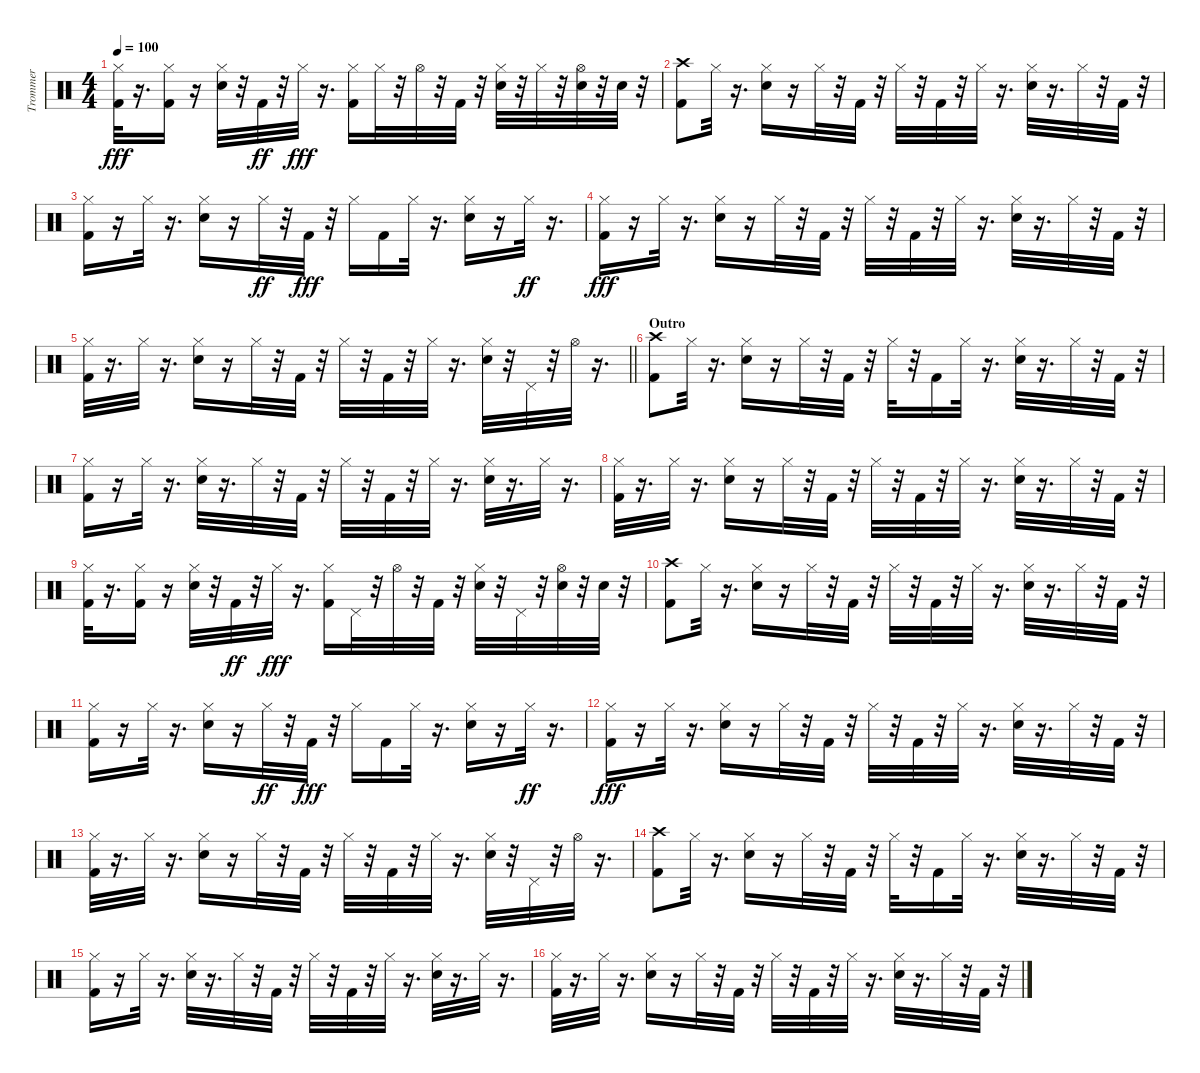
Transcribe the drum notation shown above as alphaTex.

\track ("Trommer" "Trommer") {instrument percussion}
\staff {score}
\articulation defaults
\ts (4 4)
\tempo 100
\clef neutral
\ks c
("Kick (hit) 2" "Hi-Hat (closed)").32{dy fff} r.16{d} ("Kick (hit) 2" "Hi-Hat (closed)").16 r.16 ("Snare (hit) 2" "Hi-Hat (closed)").32 r.32 "Kick (hit) 2".32{dy ff} r.32 "Hi-Hat (closed)".32{dy fff} r.16{d} ("Kick (hit) 2" "Hi-Hat (closed)").16 "Hi-Hat (closed)".32 r.32 "Hi-Hat (open)".32 r.32 "Kick (hit) 2".32 r.32 ("Snare (hit) 2" "Hi-Hat (closed)").32 r.32 "Hi-Hat (closed)".32 r.32 ("Snare (hit) 2" "Hi-Hat (open)").32 r.32 "Snare (hit) 2".32 r.32 |
("Kick (hit) 2" "Crash high (hit)").8 "Hi-Hat (closed)".32 r.16{d} ("Snare (hit) 2" "Hi-Hat (closed)").16 r.16 "Hi-Hat (closed)".32 r.32 "Kick (hit) 2".32 r.32 "Hi-Hat (closed)".32 r.32 "Kick (hit) 2".32 r.32 "Hi-Hat (closed)".32 r.16{d} ("Snare (hit) 2" "Hi-Hat (closed)").32 r.16{d} "Hi-Hat (closed)".32 r.32 "Kick (hit) 2".32 r.32 |
("Kick (hit) 2" "Hi-Hat (closed)").16 r.16 "Hi-Hat (closed)".32 r.16{d} ("Snare (hit) 2" "Hi-Hat (closed)").16 r.16 "Hi-Hat (closed)".32{dy ff} r.32 "Kick (hit) 2".32{dy fff} r.32 "Hi-Hat (closed)".16 "Kick (hit) 2".16 "Hi-Hat (closed)".32 r.16{d} ("Snare (hit) 2" "Hi-Hat (closed)").16 r.16 "Hi-Hat (closed)".32{dy ff} r.16{d} |
("Kick (hit) 2" "Hi-Hat (closed)").16{dy fff} r.16 "Hi-Hat (closed)".32 r.16{d} ("Snare (hit) 2" "Hi-Hat (closed)").16 r.16 "Hi-Hat (closed)".32 r.32 "Kick (hit) 2".32 r.32 "Hi-Hat (closed)".32 r.32 "Kick (hit) 2".32 r.32 "Hi-Hat (closed)".32 r.16{d} ("Snare (hit) 2" "Hi-Hat (closed)").32 r.16{d} "Hi-Hat (closed)".32 r.32 "Kick (hit) 2".32 r.32 |
\barLineRight lightlight
("Kick (hit) 2" "Hi-Hat (closed)").32 r.16{d} "Hi-Hat (closed)".32 r.16{d} ("Snare (hit) 2" "Hi-Hat (closed)").16 r.16 "Hi-Hat (closed)".32 r.32 "Kick (hit) 2".32 r.32 "Hi-Hat (closed)".32 r.32 "Kick (hit) 2".32 r.32 "Hi-Hat (closed)".32 r.16{d} ("Snare (hit) 2" "Hi-Hat (closed)").32 r.32 "Pedal Hi-Hat (hit)".32 r.32 "Hi-Hat (open)".32 r.16{d} |
\section ("" "Outro")
("Kick (hit) 2" "Crash high (hit)").8 "Hi-Hat (closed)".32 r.16{d} ("Snare (hit) 2" "Hi-Hat (closed)").16 r.16 "Hi-Hat (closed)".32 r.32 "Kick (hit) 2".32 r.32 "Hi-Hat (closed)".32 r.32 "Kick (hit) 2".16 "Hi-Hat (closed)".32 r.16{d} ("Snare (hit) 2" "Hi-Hat (closed)").32 r.16{d} "Hi-Hat (closed)".32 r.32 "Kick (hit) 2".32 r.32 |
("Kick (hit) 2" "Hi-Hat (closed)").16 r.16 "Hi-Hat (closed)".32 r.16{d} ("Snare (hit) 2" "Hi-Hat (closed)").32 r.16{d} "Hi-Hat (closed)".32 r.32 "Kick (hit) 2".32 r.32 "Hi-Hat (closed)".32 r.32 "Kick (hit) 2".32 r.32 "Hi-Hat (closed)".32 r.16{d} ("Snare (hit) 2" "Hi-Hat (closed)").32 r.16{d} "Hi-Hat (closed)".32 r.16{d} |
("Kick (hit) 2" "Hi-Hat (closed)").32 r.16{d} "Hi-Hat (closed)".32 r.16{d} ("Snare (hit) 2" "Hi-Hat (closed)").16 r.16 "Hi-Hat (closed)".32 r.32 "Kick (hit) 2".32 r.32 "Hi-Hat (closed)".32 r.32 "Kick (hit) 2".32 r.32 "Hi-Hat (closed)".32 r.16{d} ("Snare (hit) 2" "Hi-Hat (closed)").32 r.16{d} "Hi-Hat (closed)".32 r.32 "Kick (hit) 2".32 r.32 |
("Kick (hit) 2" "Hi-Hat (closed)").32 r.16{d} ("Kick (hit) 2" "Hi-Hat (closed)").16 r.16 ("Snare (hit) 2" "Hi-Hat (closed)").32 r.32 "Kick (hit) 2".32{dy ff} r.32 "Hi-Hat (closed)".32{dy fff} r.16{d} ("Kick (hit) 2" "Hi-Hat (closed)").16 "Pedal Hi-Hat (hit)".32 r.32 "Hi-Hat (open)".32 r.32 "Kick (hit) 2".32 r.32 ("Snare (hit) 2" "Hi-Hat (closed)").32 r.32 "Pedal Hi-Hat (hit)".32 r.32 ("Snare (hit) 2" "Hi-Hat (open)").32 r.32 "Snare (hit) 2".32 r.32 |
("Kick (hit) 2" "Crash high (hit)").8 "Hi-Hat (closed)".32 r.16{d} ("Snare (hit) 2" "Hi-Hat (closed)").16 r.16 "Hi-Hat (closed)".32 r.32 "Kick (hit) 2".32 r.32 "Hi-Hat (closed)".32 r.32 "Kick (hit) 2".32 r.32 "Hi-Hat (closed)".32 r.16{d} ("Snare (hit) 2" "Hi-Hat (closed)").32 r.16{d} "Hi-Hat (closed)".32 r.32 "Kick (hit) 2".32 r.32 |
("Kick (hit) 2" "Hi-Hat (closed)").16 r.16 "Hi-Hat (closed)".32 r.16{d} ("Snare (hit) 2" "Hi-Hat (closed)").16 r.16 "Hi-Hat (closed)".32{dy ff} r.32 "Kick (hit) 2".32{dy fff} r.32 "Hi-Hat (closed)".16 "Kick (hit) 2".16 "Hi-Hat (closed)".32 r.16{d} ("Snare (hit) 2" "Hi-Hat (closed)").16 r.16 "Hi-Hat (closed)".32{dy ff} r.16{d} |
("Kick (hit) 2" "Hi-Hat (closed)").16{dy fff} r.16 "Hi-Hat (closed)".32 r.16{d} ("Snare (hit) 2" "Hi-Hat (closed)").16 r.16 "Hi-Hat (closed)".32 r.32 "Kick (hit) 2".32 r.32 "Hi-Hat (closed)".32 r.32 "Kick (hit) 2".32 r.32 "Hi-Hat (closed)".32 r.16{d} ("Snare (hit) 2" "Hi-Hat (closed)").32 r.16{d} "Hi-Hat (closed)".32 r.32 "Kick (hit) 2".32 r.32 |
("Kick (hit) 2" "Hi-Hat (closed)").32 r.16{d} "Hi-Hat (closed)".32 r.16{d} ("Snare (hit) 2" "Hi-Hat (closed)").16 r.16 "Hi-Hat (closed)".32 r.32 "Kick (hit) 2".32 r.32 "Hi-Hat (closed)".32 r.32 "Kick (hit) 2".32 r.32 "Hi-Hat (closed)".32 r.16{d} ("Snare (hit) 2" "Hi-Hat (closed)").32 r.32 "Pedal Hi-Hat (hit)".32 r.32 "Hi-Hat (open)".32 r.16{d} |
("Kick (hit) 2" "Crash high (hit)").8 "Hi-Hat (closed)".32 r.16{d} ("Snare (hit) 2" "Hi-Hat (closed)").16 r.16 "Hi-Hat (closed)".32 r.32 "Kick (hit) 2".32 r.32 "Hi-Hat (closed)".32 r.32 "Kick (hit) 2".16 "Hi-Hat (closed)".32 r.16{d} ("Snare (hit) 2" "Hi-Hat (closed)").32 r.16{d} "Hi-Hat (closed)".32 r.32 "Kick (hit) 2".32 r.32 |
("Kick (hit) 2" "Hi-Hat (closed)").16 r.16 "Hi-Hat (closed)".32 r.16{d} ("Snare (hit) 2" "Hi-Hat (closed)").32 r.16{d} "Hi-Hat (closed)".32 r.32 "Kick (hit) 2".32 r.32 "Hi-Hat (closed)".32 r.32 "Kick (hit) 2".32 r.32 "Hi-Hat (closed)".32 r.16{d} ("Snare (hit) 2" "Hi-Hat (closed)").32 r.16{d} "Hi-Hat (closed)".32 r.16{d} |
("Kick (hit) 2" "Hi-Hat (closed)").32 r.16{d} "Hi-Hat (closed)".32 r.16{d} ("Snare (hit) 2" "Hi-Hat (closed)").16 r.16 "Hi-Hat (closed)".32 r.32 "Kick (hit) 2".32 r.32 "Hi-Hat (closed)".32 r.32 "Kick (hit) 2".32 r.32 "Hi-Hat (closed)".32 r.16{d} ("Snare (hit) 2" "Hi-Hat (closed)").32 r.16{d} "Hi-Hat (closed)".32 r.32 "Kick (hit) 2".32 r.32
